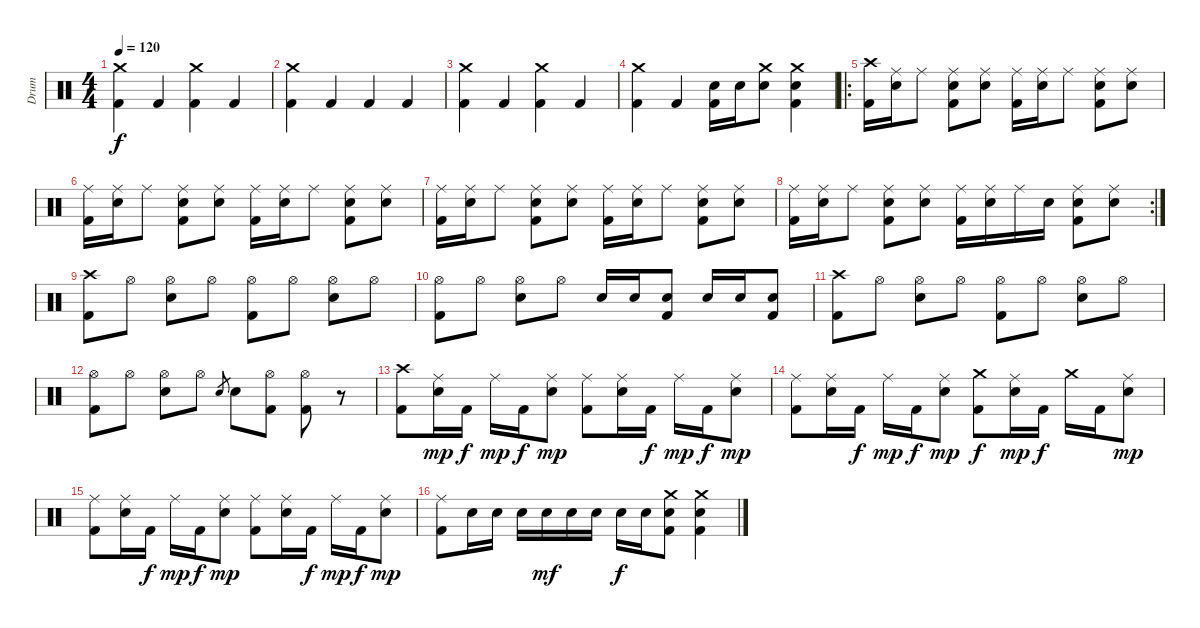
\track ("Drum" "Drum") {instrument percussion}
\staff {score}
\articulation defaults
\ts (4 4)
\tempo 120
\clef neutral
\ks c
("Crash medium (hit)" "Kick (hit) 2").4{dy f} "Kick (hit) 2".4 ("Crash medium (hit)" "Kick (hit) 2").4 "Kick (hit) 2".4 |
("Crash medium (hit)" "Kick (hit) 2").4 "Kick (hit) 2".4 "Kick (hit) 2".4 "Kick (hit) 2".4 |
("Crash medium (hit)" "Kick (hit) 2").4 "Kick (hit) 2".4 ("Crash medium (hit)" "Kick (hit) 2").4 "Kick (hit) 2".4 |
("Crash medium (hit)" "Kick (hit) 2").4 "Kick (hit) 2".4 ("Electric Snare (hit)" "Kick (hit) 2").16 "Electric Snare (hit)".16 ("Crash medium (hit)" "Electric Snare (hit)").8 ("Crash medium (hit)" "Electric Snare (hit)" "Kick (hit) 2").4 |
\ro
("Crash high (hit)" "Kick (hit) 2").16 ("Ride (middle)" "Electric Snare (hit)").16 "Ride (middle)".8 ("Ride (middle)" "Electric Snare (hit)" "Kick (hit) 2").8 ("Ride (middle)" "Electric Snare (hit)").8 ("Ride (middle)" "Kick (hit) 2").16 ("Ride (middle)" "Electric Snare (hit)").16 "Ride (middle)".8 ("Ride (middle)" "Electric Snare (hit)" "Kick (hit) 2").8 ("Ride (middle)" "Electric Snare (hit)").8 |
("Ride (middle)" "Kick (hit) 2").16 ("Ride (middle)" "Electric Snare (hit)").16 "Ride (middle)".8 ("Ride (middle)" "Electric Snare (hit)" "Kick (hit) 2").8 ("Ride (middle)" "Electric Snare (hit)").8 ("Ride (middle)" "Kick (hit) 2").16 ("Ride (middle)" "Electric Snare (hit)").16 "Ride (middle)".8 ("Ride (middle)" "Electric Snare (hit)" "Kick (hit) 2").8 ("Ride (middle)" "Electric Snare (hit)").8 |
("Ride (middle)" "Kick (hit) 2").16 ("Ride (middle)" "Electric Snare (hit)").16 "Ride (middle)".8 ("Ride (middle)" "Electric Snare (hit)" "Kick (hit) 2").8 ("Ride (middle)" "Electric Snare (hit)").8 ("Ride (middle)" "Kick (hit) 2").16 ("Ride (middle)" "Electric Snare (hit)").16 "Ride (middle)".8 ("Ride (middle)" "Electric Snare (hit)" "Kick (hit) 2").8 ("Ride (middle)" "Electric Snare (hit)").8 |
\rc 2
("Ride (middle)" "Kick (hit) 2").16 ("Ride (middle)" "Electric Snare (hit)").16 "Ride (middle)".8 ("Ride (middle)" "Electric Snare (hit)" "Kick (hit) 2").8 ("Ride (middle)" "Electric Snare (hit)").8 ("Ride (middle)" "Kick (hit) 2").16 ("Ride (middle)" "Electric Snare (hit)").16 "Ride (middle)".16 "Electric Snare (hit)".16 ("Ride (middle)" "Electric Snare (hit)" "Kick (hit) 2").8 ("Ride (middle)" "Electric Snare (hit)").8 |
("Crash high (hit)" "Kick (hit) 2").8 "Hi-Hat (open)".8 ("Hi-Hat (open)" "Electric Snare (hit)").8 "Hi-Hat (open)".8 ("Hi-Hat (open)" "Kick (hit) 2").8 "Hi-Hat (open)".8 ("Hi-Hat (open)" "Electric Snare (hit)").8 "Hi-Hat (open)".8 |
("Hi-Hat (open)" "Kick (hit) 2").8 "Hi-Hat (open)".8 ("Hi-Hat (open)" "Electric Snare (hit)").8 "Hi-Hat (open)".8 "Electric Snare (hit)".16 "Electric Snare (hit)".16 ("Electric Snare (hit)" "Kick (hit) 2").8 "Electric Snare (hit)".16 "Electric Snare (hit)".16 ("Electric Snare (hit)" "Kick (hit) 2").8 |
("Crash high (hit)" "Kick (hit) 2").8 "Hi-Hat (open)".8 ("Hi-Hat (open)" "Electric Snare (hit)").8 "Hi-Hat (open)".8 ("Hi-Hat (open)" "Kick (hit) 2").8 "Hi-Hat (open)".8 ("Hi-Hat (open)" "Electric Snare (hit)").8 "Hi-Hat (open)".8 |
("Hi-Hat (open)" "Kick (hit) 2").8 "Hi-Hat (open)".8 ("Hi-Hat (open)" "Electric Snare (hit)").8 "Hi-Hat (open)".8 "Electric Snare (hit)".8{gr} "Electric Snare (hit)".8 ("Hi-Hat (open)" "Kick (hit) 2").8 ("Hi-Hat (open)" "Kick (hit) 2").8 r.8 |
("Crash high (hit)" "Kick (hit) 2").8 ("Ride (middle)" "Electric Snare (hit)").16{dy mp} "Kick (hit) 2".16{dy f} "Ride (middle)".16{dy mp} "Kick (hit) 2".16{dy f} ("Ride (middle)" "Electric Snare (hit)").8{dy mp} ("Ride (middle)" "Kick (hit) 2").8 ("Ride (middle)" "Electric Snare (hit)").16 "Kick (hit) 2".16{dy f} "Ride (middle)".16{dy mp} "Kick (hit) 2".16{dy f} ("Ride (middle)" "Electric Snare (hit)").8{dy mp} |
("Ride (middle)" "Kick (hit) 2").8 ("Ride (middle)" "Electric Snare (hit)").16 "Kick (hit) 2".16{dy f} "Ride (middle)".16{dy mp} "Kick (hit) 2".16{dy f} ("Ride (middle)" "Electric Snare (hit)").8{dy mp} ("Crash medium (hit)" "Kick (hit) 2").8{dy f} ("Ride (middle)" "Electric Snare (hit)").16{dy mp} "Kick (hit) 2".16{dy f} "Crash medium (hit)".16 "Kick (hit) 2".16 ("Ride (middle)" "Electric Snare (hit)").8{dy mp} |
("Ride (middle)" "Kick (hit) 2").8 ("Ride (middle)" "Electric Snare (hit)").16 "Kick (hit) 2".16{dy f} "Ride (middle)".16{dy mp} "Kick (hit) 2".16{dy f} ("Ride (middle)" "Electric Snare (hit)").8{dy mp} ("Ride (middle)" "Kick (hit) 2").8 ("Ride (middle)" "Electric Snare (hit)").16 "Kick (hit) 2".16{dy f} "Ride (middle)".16{dy mp} "Kick (hit) 2".16{dy f} ("Ride (middle)" "Electric Snare (hit)").8{dy mp} |
("Ride (middle)" "Kick (hit) 2").8 "Electric Snare (hit)".16 "Electric Snare (hit)".16 "Electric Snare (hit)".16 "Electric Snare (hit)".16{dy mf} "Electric Snare (hit)".16 "Electric Snare (hit)".16 "Electric Snare (hit)".16{dy f} "Electric Snare (hit)".16 ("Crash medium (hit)" "Electric Snare (hit)" "Kick (hit) 2").8 ("Crash medium (hit)" "Electric Snare (hit)" "Kick (hit) 2").4
